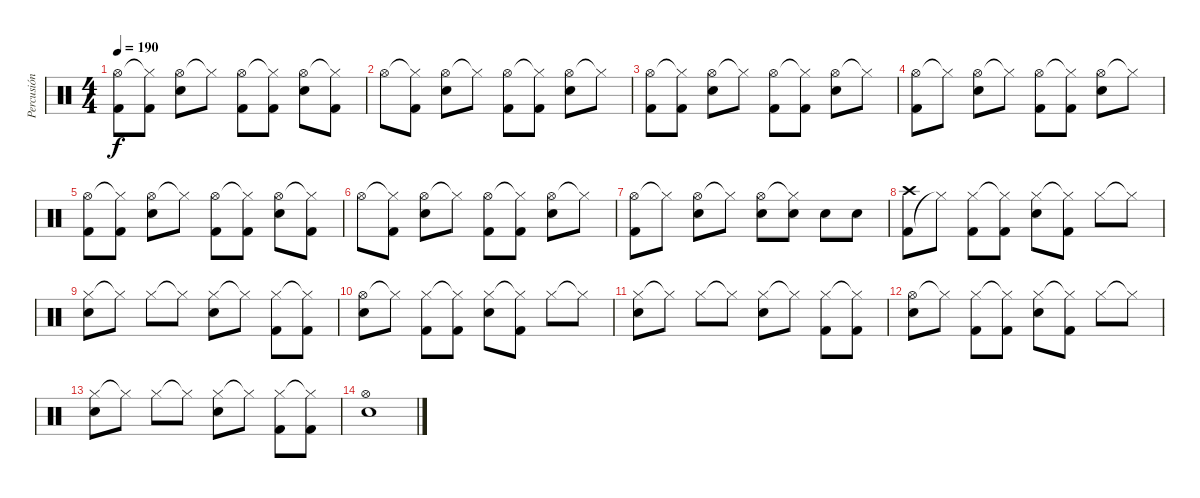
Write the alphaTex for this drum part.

\track ("Percusión" "Percusión") {instrument percussion}
\staff {score}
\articulation defaults
\ts (4 4)
\tempo 190
\clef neutral
\ks c
("Hi-Hat (open)" "Kick (hit) 2").8{dy f} ("Hi-Hat (closed)"{t} "Kick (hit) 2").8 ("Hi-Hat (open)" "Snare (hit) 2").8 "Hi-Hat (closed)"{t}.8 ("Hi-Hat (open)" "Kick (hit) 2").8 ("Hi-Hat (closed)"{t} "Kick (hit) 2").8 ("Hi-Hat (open)" "Snare (hit) 2").8 ("Hi-Hat (closed)"{t} "Kick (hit) 2").8 |
"Hi-Hat (open)".8 ("Hi-Hat (closed)"{t} "Kick (hit) 2").8 ("Hi-Hat (open)" "Snare (hit) 2").8 "Hi-Hat (closed)"{t}.8 ("Hi-Hat (open)" "Kick (hit) 2").8 ("Hi-Hat (closed)"{t} "Kick (hit) 2").8 ("Hi-Hat (open)" "Snare (hit) 2").8 "Hi-Hat (closed)"{t}.8 |
("Hi-Hat (open)" "Kick (hit) 2").8 ("Hi-Hat (closed)"{t} "Kick (hit) 2").8 ("Hi-Hat (open)" "Snare (hit) 2").8 "Hi-Hat (closed)"{t}.8 ("Hi-Hat (open)" "Kick (hit) 2").8 ("Hi-Hat (closed)"{t} "Kick (hit) 2").8 ("Hi-Hat (open)" "Snare (hit) 2").8 "Hi-Hat (closed)"{t}.8 |
("Hi-Hat (open)" "Kick (hit) 2").8 "Hi-Hat (closed)"{t}.8 ("Hi-Hat (open)" "Snare (hit) 2").8 "Hi-Hat (closed)"{t}.8 ("Hi-Hat (open)" "Kick (hit) 2").8 ("Hi-Hat (closed)"{t} "Kick (hit) 2").8 ("Hi-Hat (open)" "Snare (hit) 2").8 "Hi-Hat (closed)"{t}.8 |
("Hi-Hat (open)" "Kick (hit) 2").8 ("Hi-Hat (closed)"{t} "Kick (hit) 2").8 ("Hi-Hat (open)" "Snare (hit) 2").8 "Hi-Hat (closed)"{t}.8 ("Hi-Hat (open)" "Kick (hit) 2").8 ("Hi-Hat (closed)"{t} "Kick (hit) 2").8 ("Hi-Hat (open)" "Snare (hit) 2").8 ("Hi-Hat (closed)"{t} "Kick (hit) 2").8 |
"Hi-Hat (open)".8 ("Hi-Hat (closed)"{t} "Kick (hit) 2").8 ("Hi-Hat (open)" "Snare (hit) 2").8 "Hi-Hat (closed)"{t}.8 ("Hi-Hat (open)" "Kick (hit) 2").8 ("Hi-Hat (closed)"{t} "Kick (hit) 2").8 ("Hi-Hat (open)" "Snare (hit) 2").8 "Hi-Hat (closed)"{t}.8 |
("Hi-Hat (open)" "Kick (hit) 2").8 "Hi-Hat (closed)"{t}.8 ("Hi-Hat (open)" "Snare (hit) 2").8 "Hi-Hat (closed)"{t}.8 ("Hi-Hat (open)" "Snare (hit) 2").8 ("Hi-Hat (closed)"{t} "Snare (hit) 2").8 "Snare (hit) 2".8 "Snare (hit) 2".8 |
("Kick (hit) 2" "Crash high (hit)").8 "Hi-Hat (closed)"{t}.8 ("Hi-Hat (closed)" "Kick (hit) 2").8 ("Hi-Hat (closed)"{t} "Kick (hit) 2").8 ("Hi-Hat (closed)" "Snare (hit) 2").8 ("Hi-Hat (closed)"{t} "Kick (hit) 2").8 "Hi-Hat (closed)".8 "Hi-Hat (closed)"{t}.8 |
("Hi-Hat (closed)" "Snare (hit) 2").8 "Hi-Hat (closed)"{t}.8 "Hi-Hat (closed)".8 "Hi-Hat (closed)"{t}.8 ("Hi-Hat (closed)" "Snare (hit) 2").8 "Hi-Hat (closed)"{t}.8 ("Hi-Hat (closed)" "Kick (hit) 2").8 ("Hi-Hat (closed)"{t} "Kick (hit) 2").8 |
("Hi-Hat (open)" "Snare (hit) 2").8 "Hi-Hat (closed)"{t}.8 ("Hi-Hat (closed)" "Kick (hit) 2").8 ("Hi-Hat (closed)"{t} "Kick (hit) 2").8 ("Hi-Hat (closed)" "Snare (hit) 2").8 ("Hi-Hat (closed)"{t} "Kick (hit) 2").8 "Hi-Hat (closed)".8 "Hi-Hat (closed)"{t}.8 |
("Hi-Hat (closed)" "Snare (hit) 2").8 "Hi-Hat (closed)"{t}.8 "Hi-Hat (closed)".8 "Hi-Hat (closed)"{t}.8 ("Hi-Hat (closed)" "Snare (hit) 2").8 "Hi-Hat (closed)"{t}.8 ("Hi-Hat (closed)" "Kick (hit) 2").8 ("Hi-Hat (closed)"{t} "Kick (hit) 2").8 |
("Hi-Hat (open)" "Snare (hit) 2").8 "Hi-Hat (closed)"{t}.8 ("Hi-Hat (closed)" "Kick (hit) 2").8 ("Hi-Hat (closed)"{t} "Kick (hit) 2").8 ("Hi-Hat (closed)" "Snare (hit) 2").8 ("Hi-Hat (closed)"{t} "Kick (hit) 2").8 "Hi-Hat (closed)".8 "Hi-Hat (closed)"{t}.8 |
("Hi-Hat (closed)" "Snare (hit) 2").8 "Hi-Hat (closed)"{t}.8 "Hi-Hat (closed)".8 "Hi-Hat (closed)"{t}.8 ("Hi-Hat (closed)" "Snare (hit) 2").8 "Hi-Hat (closed)"{t}.8 ("Hi-Hat (closed)" "Kick (hit) 2").8 ("Hi-Hat (closed)"{t} "Kick (hit) 2").8 |
("Snare (hit) 2" "Hi-Hat (open)").1
